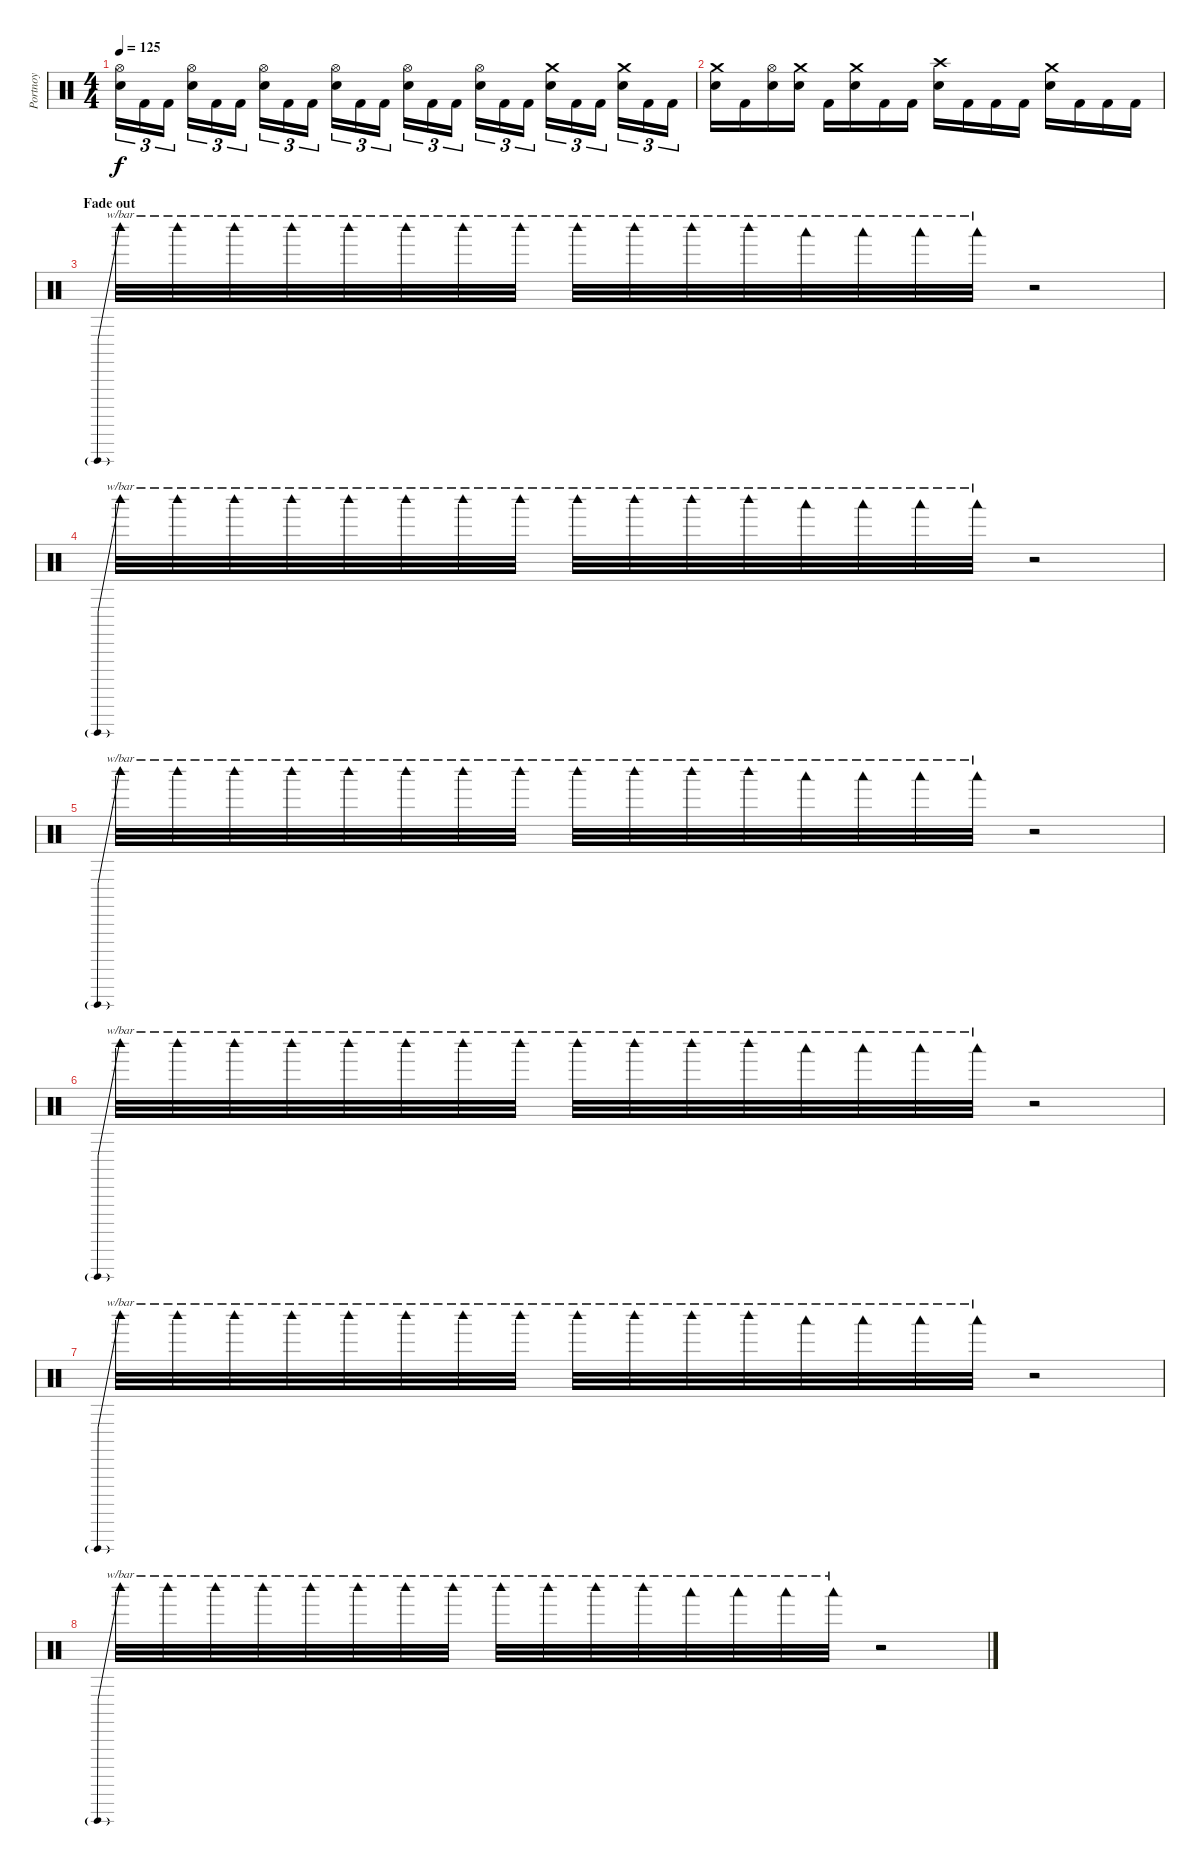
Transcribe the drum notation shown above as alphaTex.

\track ("Portnoy" "Portnoy") {instrument percussion}
\staff {score}
\articulation defaults
\ts (4 4)
\tempo 125
\clef neutral
\ks c
("Hi-Hat (open)" "Snare (hit) 2").16{tu (3 2) dy f} "Kick (hit) 2".16{tu (3 2)} "Kick (hit) 2".16{tu (3 2)} ("Hi-Hat (open)" "Snare (hit) 2").16{tu (3 2)} "Kick (hit) 2".16{tu (3 2)} "Kick (hit) 2".16{tu (3 2)} ("Hi-Hat (open)" "Snare (hit) 2").16{tu (3 2)} "Kick (hit) 2".16{tu (3 2)} "Kick (hit) 2".16{tu (3 2)} ("Hi-Hat (open)" "Snare (hit) 2").16{tu (3 2)} "Kick (hit) 2".16{tu (3 2)} "Kick (hit) 2".16{tu (3 2)} ("Hi-Hat (open)" "Snare (hit) 2").16{tu (3 2)} "Kick (hit) 2".16{tu (3 2)} "Kick (hit) 2".16{tu (3 2)} ("Hi-Hat (open)" "Snare (hit) 2").16{tu (3 2)} "Kick (hit) 2".16{tu (3 2)} "Kick (hit) 2".16{tu (3 2)} ("Crash medium (hit)" "Snare (hit) 2").16{tu (3 2)} "Kick (hit) 2".16{tu (3 2)} "Kick (hit) 2".16{tu (3 2)} ("Crash medium (hit)" "Snare (hit) 2").16{tu (3 2)} "Kick (hit) 2".16{tu (3 2)} "Kick (hit) 2".16{tu (3 2)} |
("Crash medium (hit)" "Snare (hit) 2").16 "Kick (hit) 2".16 ("Hi-Hat (open)" "Snare (hit) 2").16 ("Crash medium (hit)" "Snare (hit) 2").16 "Kick (hit) 2".16 ("Crash medium (hit)" "Snare (hit) 2").16 "Kick (hit) 2".16 "Kick (hit) 2".16 ("Crash high (hit)" "Snare (hit) 2").16 "Kick (hit) 2".16 "Kick (hit) 2".16 "Kick (hit) 2".16 ("Crash medium (hit)" "Snare (hit) 2").16 "Kick (hit) 2".16 "Kick (hit) 2".16 "Kick (hit) 2".16 |
\section ("" "Fade out")
"Woodblock high (hit)".32{tbe (predive default 0 24 60 24)} "Woodblock high (hit)".32{tbe (hold default 0 22 60 22)} "Woodblock high (hit)".32{tbe (hold default 0 20 60 20)} "Woodblock high (hit)".32{tbe (hold default 0 18 60 18)} "Woodblock high (hit)".32{tbe (hold default 0 16 60 16)} "Woodblock high (hit)".32{tbe (hold default 0 14 60 14)} "Woodblock high (hit)".32{tbe (hold default 0 12 60 12)} "Woodblock high (hit)".32{tbe (hold default 0 10 60 10)} "Woodblock high (hit)".32{tbe (hold default 0 6 60 6)} "Woodblock high (hit)".32{tbe (hold default 0 2 60 2)} "Woodblock high (hit)".32{tbe (hold default 0 0 60 0)} "Woodblock high (hit)".32{tbe (hold default 0 -4 60 -4)} "Woodblock low (hit)".32{tbe (hold default 0 6 60 6)} "Woodblock low (hit)".32{tbe (hold default 0 0 60 0)} "Woodblock low (hit)".32{tbe (hold default 0 -8 60 -8)} "Woodblock low (hit)".32{tbe (hold default 0 -16 60 -16)} r.2 |
"Woodblock high (hit)".32{tbe (predive default 0 24 60 24)} "Woodblock high (hit)".32{tbe (hold default 0 22 60 22)} "Woodblock high (hit)".32{tbe (hold default 0 20 60 20)} "Woodblock high (hit)".32{tbe (hold default 0 18 60 18)} "Woodblock high (hit)".32{tbe (hold default 0 16 60 16)} "Woodblock high (hit)".32{tbe (hold default 0 14 60 14)} "Woodblock high (hit)".32{tbe (hold default 0 12 60 12)} "Woodblock high (hit)".32{tbe (hold default 0 10 60 10)} "Woodblock high (hit)".32{tbe (hold default 0 6 60 6)} "Woodblock high (hit)".32{tbe (hold default 0 2 60 2)} "Woodblock high (hit)".32{tbe (hold default 0 0 60 0)} "Woodblock high (hit)".32{tbe (hold default 0 -4 60 -4)} "Woodblock low (hit)".32{tbe (hold default 0 6 60 6)} "Woodblock low (hit)".32{tbe (hold default 0 0 60 0)} "Woodblock low (hit)".32{tbe (hold default 0 -8 60 -8)} "Woodblock low (hit)".32{tbe (hold default 0 -16 60 -16)} r.2 |
"Woodblock high (hit)".32{tbe (predive default 0 24 60 24)} "Woodblock high (hit)".32{tbe (hold default 0 22 60 22)} "Woodblock high (hit)".32{tbe (hold default 0 20 60 20)} "Woodblock high (hit)".32{tbe (hold default 0 18 60 18)} "Woodblock high (hit)".32{tbe (hold default 0 16 60 16)} "Woodblock high (hit)".32{tbe (hold default 0 14 60 14)} "Woodblock high (hit)".32{tbe (hold default 0 12 60 12)} "Woodblock high (hit)".32{tbe (hold default 0 10 60 10)} "Woodblock high (hit)".32{tbe (hold default 0 6 60 6)} "Woodblock high (hit)".32{tbe (hold default 0 2 60 2)} "Woodblock high (hit)".32{tbe (hold default 0 0 60 0)} "Woodblock high (hit)".32{tbe (hold default 0 -4 60 -4)} "Woodblock low (hit)".32{tbe (hold default 0 6 60 6)} "Woodblock low (hit)".32{tbe (hold default 0 0 60 0)} "Woodblock low (hit)".32{tbe (hold default 0 -8 60 -8)} "Woodblock low (hit)".32{tbe (hold default 0 -16 60 -16)} r.2 |
"Woodblock high (hit)".32{tbe (predive default 0 24 60 24)} "Woodblock high (hit)".32{tbe (hold default 0 22 60 22)} "Woodblock high (hit)".32{tbe (hold default 0 20 60 20)} "Woodblock high (hit)".32{tbe (hold default 0 18 60 18)} "Woodblock high (hit)".32{tbe (hold default 0 16 60 16)} "Woodblock high (hit)".32{tbe (hold default 0 14 60 14)} "Woodblock high (hit)".32{tbe (hold default 0 12 60 12)} "Woodblock high (hit)".32{tbe (hold default 0 10 60 10)} "Woodblock high (hit)".32{tbe (hold default 0 6 60 6)} "Woodblock high (hit)".32{tbe (hold default 0 2 60 2)} "Woodblock high (hit)".32{tbe (hold default 0 0 60 0)} "Woodblock high (hit)".32{tbe (hold default 0 -4 60 -4)} "Woodblock low (hit)".32{tbe (hold default 0 6 60 6)} "Woodblock low (hit)".32{tbe (hold default 0 0 60 0)} "Woodblock low (hit)".32{tbe (hold default 0 -8 60 -8)} "Woodblock low (hit)".32{tbe (hold default 0 -16 60 -16)} r.2 |
"Woodblock high (hit)".32{tbe (predive default 0 24 60 24)} "Woodblock high (hit)".32{tbe (hold default 0 22 60 22)} "Woodblock high (hit)".32{tbe (hold default 0 20 60 20)} "Woodblock high (hit)".32{tbe (hold default 0 18 60 18)} "Woodblock high (hit)".32{tbe (hold default 0 16 60 16)} "Woodblock high (hit)".32{tbe (hold default 0 14 60 14)} "Woodblock high (hit)".32{tbe (hold default 0 12 60 12)} "Woodblock high (hit)".32{tbe (hold default 0 10 60 10)} "Woodblock high (hit)".32{tbe (hold default 0 6 60 6)} "Woodblock high (hit)".32{tbe (hold default 0 2 60 2)} "Woodblock high (hit)".32{tbe (hold default 0 0 60 0)} "Woodblock high (hit)".32{tbe (hold default 0 -4 60 -4)} "Woodblock low (hit)".32{tbe (hold default 0 6 60 6)} "Woodblock low (hit)".32{tbe (hold default 0 0 60 0)} "Woodblock low (hit)".32{tbe (hold default 0 -8 60 -8)} "Woodblock low (hit)".32{tbe (hold default 0 -16 60 -16)} r.2 |
"Woodblock high (hit)".32{tbe (predive default 0 24 60 24)} "Woodblock high (hit)".32{tbe (hold default 0 22 60 22)} "Woodblock high (hit)".32{tbe (hold default 0 20 60 20)} "Woodblock high (hit)".32{tbe (hold default 0 18 60 18)} "Woodblock high (hit)".32{tbe (hold default 0 16 60 16)} "Woodblock high (hit)".32{tbe (hold default 0 14 60 14)} "Woodblock high (hit)".32{tbe (hold default 0 12 60 12)} "Woodblock high (hit)".32{tbe (hold default 0 10 60 10)} "Woodblock high (hit)".32{tbe (hold default 0 6 60 6)} "Woodblock high (hit)".32{tbe (hold default 0 2 60 2)} "Woodblock high (hit)".32{tbe (hold default 0 0 60 0)} "Woodblock high (hit)".32{tbe (hold default 0 -4 60 -4)} "Woodblock low (hit)".32{tbe (hold default 0 6 60 6)} "Woodblock low (hit)".32{tbe (hold default 0 0 60 0)} "Woodblock low (hit)".32{tbe (hold default 0 -8 60 -8)} "Woodblock low (hit)".32{tbe (hold default 0 -16 60 -16)} r.2
